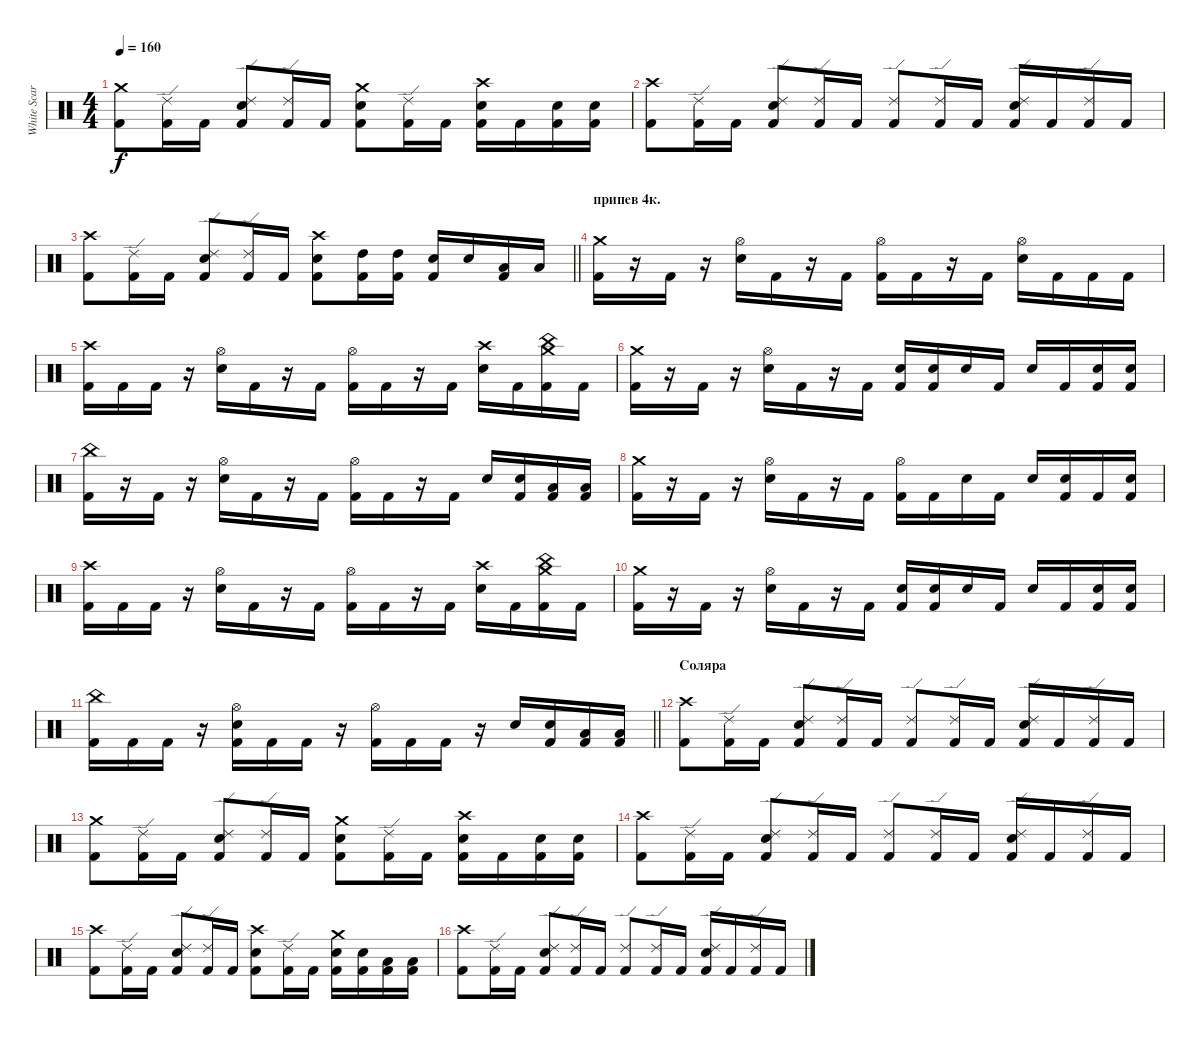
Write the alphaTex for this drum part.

\track ("White Scar" "White Scar") {instrument percussion}
\staff {score}
\articulation defaults
\ts (4 4)
\tempo 160
\clef neutral
\ks c
("Crash medium (hit)" "Kick (hit) 2").8{dy f} ("Ride (edge) 2" "Kick (hit) 2").16 "Kick (hit) 2".16 ("Ride (edge) 2" "Snare (hit) 2" "Kick (hit) 2").8 ("Ride (edge) 2" "Kick (hit) 2").16 "Kick (hit) 2".16 ("Crash medium (hit)" "Snare (hit) 2" "Kick (hit) 2").8 ("Ride (edge) 2" "Kick (hit) 2").16 "Kick (hit) 2".16 ("Crash high (hit)" "Snare (hit) 2" "Kick (hit) 2").16 "Kick (hit) 2".16 ("Snare (hit) 2" "Kick (hit) 2").16 ("Snare (hit) 2" "Kick (hit) 2").16 |
("Crash high (hit)" "Kick (hit) 2").8 ("Ride (edge) 2" "Kick (hit) 2").16 "Kick (hit) 2".16 ("Ride (edge) 2" "Snare (hit) 2" "Kick (hit) 2").8 ("Ride (edge) 2" "Kick (hit) 2").16 "Kick (hit) 2".16 ("Ride (edge) 2" "Kick (hit) 2").8 ("Ride (edge) 2" "Kick (hit) 2").16 "Kick (hit) 2".16 ("Ride (edge) 2" "Snare (hit) 2" "Kick (hit) 2").16 "Kick (hit) 2".16 ("Ride (edge) 2" "Kick (hit) 2").16 "Kick (hit) 2".16 |
\barLineRight lightlight
("Crash high (hit)" "Kick (hit) 2").8 ("Ride (edge) 2" "Kick (hit) 2").16 "Kick (hit) 2".16 ("Ride (edge) 2" "Snare (hit) 2" "Kick (hit) 2").8 ("Ride (edge) 2" "Kick (hit) 2").16 "Kick (hit) 2".16 ("Crash high (hit)" "Snare (hit) 2" "Kick (hit) 2").8 ("High Tom (hit)" "Kick (hit) 2").16 ("High Tom (hit)" "Kick (hit) 2").16 ("Snare (hit) 2" "Kick (hit) 2").16 "Snare (hit) 2".16 ("Low Tom (hit)" "Kick (hit) 2").16 "Low Tom (hit)".16 |
\section ("" "припев 4к.")
("Crash medium (hit)" "Kick (hit) 2").16 r.16 "Kick (hit) 2".16 r.16 ("Hi-Hat (open)" "Snare (hit) 2").16 "Kick (hit) 2".16 r.16 "Kick (hit) 2".16 ("Hi-Hat (open)" "Kick (hit) 2").16 "Kick (hit) 2".16 r.16 "Kick (hit) 2".16 ("Hi-Hat (open)" "Snare (hit) 2").16 "Kick (hit) 2".16 "Kick (hit) 2".16 "Kick (hit) 2".16 |
("Crash high (hit)" "Kick (hit) 2").16 "Kick (hit) 2".16 "Kick (hit) 2".16 r.16 ("Hi-Hat (open)" "Snare (hit) 2").16 "Kick (hit) 2".16 r.16 "Kick (hit) 2".16 ("Hi-Hat (open)" "Kick (hit) 2").16 "Kick (hit) 2".16 r.16 "Kick (hit) 2".16 ("Crash high (hit)" "Snare (hit) 2").16 "Kick (hit) 2".16 ("China (hit)" "Crash medium (hit)" "Kick (hit) 2").16 "Kick (hit) 2".16 |
("Crash medium (hit)" "Kick (hit) 2").16 r.16 "Kick (hit) 2".16 r.16 ("Hi-Hat (open)" "Snare (hit) 2").16 "Kick (hit) 2".16 r.16 "Kick (hit) 2".16 ("Snare (hit) 2" "Kick (hit) 2").16 ("Snare (hit) 2" "Kick (hit) 2").16 "Snare (hit) 2".16 "Kick (hit) 2".16 "Snare (hit) 2".16 "Kick (hit) 2".16 ("Snare (hit) 2" "Kick (hit) 2").16 ("Snare (hit) 2" "Kick (hit) 2").16 |
("China (hit)" "Kick (hit) 2").16 r.16 "Kick (hit) 2".16 r.16 ("Hi-Hat (open)" "Snare (hit) 2").16 "Kick (hit) 2".16 r.16 "Kick (hit) 2".16 ("Hi-Hat (open)" "Kick (hit) 2").16 "Kick (hit) 2".16 r.16 "Kick (hit) 2".16 "Snare (hit) 2".16 ("Snare (hit) 2" "Kick (hit) 2").16 ("Low Tom (hit)" "Kick (hit) 2").16 ("Low Tom (hit)" "Kick (hit) 2").16 |
("Crash medium (hit)" "Kick (hit) 2").16 r.16 "Kick (hit) 2".16 r.16 ("Hi-Hat (open)" "Snare (hit) 2").16 "Kick (hit) 2".16 r.16 "Kick (hit) 2".16 ("Hi-Hat (open)" "Kick (hit) 2").16 "Kick (hit) 2".16 "Snare (hit) 2".16 "Kick (hit) 2".16 "Snare (hit) 2".16 ("Snare (hit) 2" "Kick (hit) 2").16 "Kick (hit) 2".16 ("Snare (hit) 2" "Kick (hit) 2").16 |
("Crash high (hit)" "Kick (hit) 2").16 "Kick (hit) 2".16 "Kick (hit) 2".16 r.16 ("Hi-Hat (open)" "Snare (hit) 2").16 "Kick (hit) 2".16 r.16 "Kick (hit) 2".16 ("Hi-Hat (open)" "Kick (hit) 2").16 "Kick (hit) 2".16 r.16 "Kick (hit) 2".16 ("Crash high (hit)" "Snare (hit) 2").16 "Kick (hit) 2".16 ("China (hit)" "Crash medium (hit)" "Kick (hit) 2").16 "Kick (hit) 2".16 |
("Crash medium (hit)" "Kick (hit) 2").16 r.16 "Kick (hit) 2".16 r.16 ("Hi-Hat (open)" "Snare (hit) 2").16 "Kick (hit) 2".16 r.16 "Kick (hit) 2".16 ("Snare (hit) 2" "Kick (hit) 2").16 ("Snare (hit) 2" "Kick (hit) 2").16 "Snare (hit) 2".16 "Kick (hit) 2".16 "Snare (hit) 2".16 "Kick (hit) 2".16 ("Snare (hit) 2" "Kick (hit) 2").16 ("Snare (hit) 2" "Kick (hit) 2").16 |
\barLineRight lightlight
("China (hit)" "Kick (hit) 2").16 "Kick (hit) 2".16 "Kick (hit) 2".16 r.16 ("Hi-Hat (open)" "Snare (hit) 2" "Kick (hit) 2").16 "Kick (hit) 2".16 "Kick (hit) 2".16 r.16 ("Hi-Hat (open)" "Kick (hit) 2").16 "Kick (hit) 2".16 "Kick (hit) 2".16 r.16 "Snare (hit) 2".16 ("Snare (hit) 2" "Kick (hit) 2").16 ("Low Tom (hit)" "Kick (hit) 2").16 ("Low Tom (hit)" "Kick (hit) 2").16 |
\section ("" "Соляра")
("Crash high (hit)" "Kick (hit) 2").8 ("Ride (edge) 2" "Kick (hit) 2").16 "Kick (hit) 2".16 ("Ride (edge) 2" "Snare (hit) 2" "Kick (hit) 2").8 ("Ride (edge) 2" "Kick (hit) 2").16 "Kick (hit) 2".16 ("Ride (edge) 2" "Kick (hit) 2").8 ("Ride (edge) 2" "Kick (hit) 2").16 "Kick (hit) 2".16 ("Ride (edge) 2" "Snare (hit) 2" "Kick (hit) 2").16 "Kick (hit) 2".16 ("Ride (edge) 2" "Kick (hit) 2").16 "Kick (hit) 2".16 |
("Crash medium (hit)" "Kick (hit) 2").8 ("Ride (edge) 2" "Kick (hit) 2").16 "Kick (hit) 2".16 ("Ride (edge) 2" "Snare (hit) 2" "Kick (hit) 2").8 ("Ride (edge) 2" "Kick (hit) 2").16 "Kick (hit) 2".16 ("Crash medium (hit)" "Snare (hit) 2" "Kick (hit) 2").8 ("Ride (edge) 2" "Kick (hit) 2").16 "Kick (hit) 2".16 ("Crash high (hit)" "Snare (hit) 2" "Kick (hit) 2").16 "Kick (hit) 2".16 ("Snare (hit) 2" "Kick (hit) 2").16 ("Snare (hit) 2" "Kick (hit) 2").16 |
("Crash high (hit)" "Kick (hit) 2").8 ("Ride (edge) 2" "Kick (hit) 2").16 "Kick (hit) 2".16 ("Ride (edge) 2" "Snare (hit) 2" "Kick (hit) 2").8 ("Ride (edge) 2" "Kick (hit) 2").16 "Kick (hit) 2".16 ("Ride (edge) 2" "Kick (hit) 2").8 ("Ride (edge) 2" "Kick (hit) 2").16 "Kick (hit) 2".16 ("Ride (edge) 2" "Snare (hit) 2" "Kick (hit) 2").16 "Kick (hit) 2".16 ("Ride (edge) 2" "Kick (hit) 2").16 "Kick (hit) 2".16 |
("Crash high (hit)" "Kick (hit) 2").8 ("Ride (edge) 2" "Kick (hit) 2").16 "Kick (hit) 2".16 ("Ride (edge) 2" "Snare (hit) 2" "Kick (hit) 2").8 ("Ride (edge) 2" "Kick (hit) 2").16 "Kick (hit) 2".16 ("Crash high (hit)" "Snare (hit) 2" "Kick (hit) 2").8 ("Ride (edge) 2" "Kick (hit) 2").16 "Kick (hit) 2".16 ("Crash medium (hit)" "Snare (hit) 2" "Kick (hit) 2").16 ("Snare (hit) 2" "Kick (hit) 2").16 ("Low Tom (hit)" "Kick (hit) 2").16 ("Low Tom (hit)" "Kick (hit) 2").16 |
("Crash high (hit)" "Kick (hit) 2").8 ("Ride (edge) 2" "Kick (hit) 2").16 "Kick (hit) 2".16 ("Ride (edge) 2" "Snare (hit) 2" "Kick (hit) 2").8 ("Ride (edge) 2" "Kick (hit) 2").16 "Kick (hit) 2".16 ("Ride (edge) 2" "Kick (hit) 2").8 ("Ride (edge) 2" "Kick (hit) 2").16 "Kick (hit) 2".16 ("Ride (edge) 2" "Snare (hit) 2" "Kick (hit) 2").16 "Kick (hit) 2".16 ("Ride (edge) 2" "Kick (hit) 2").16 "Kick (hit) 2".16
